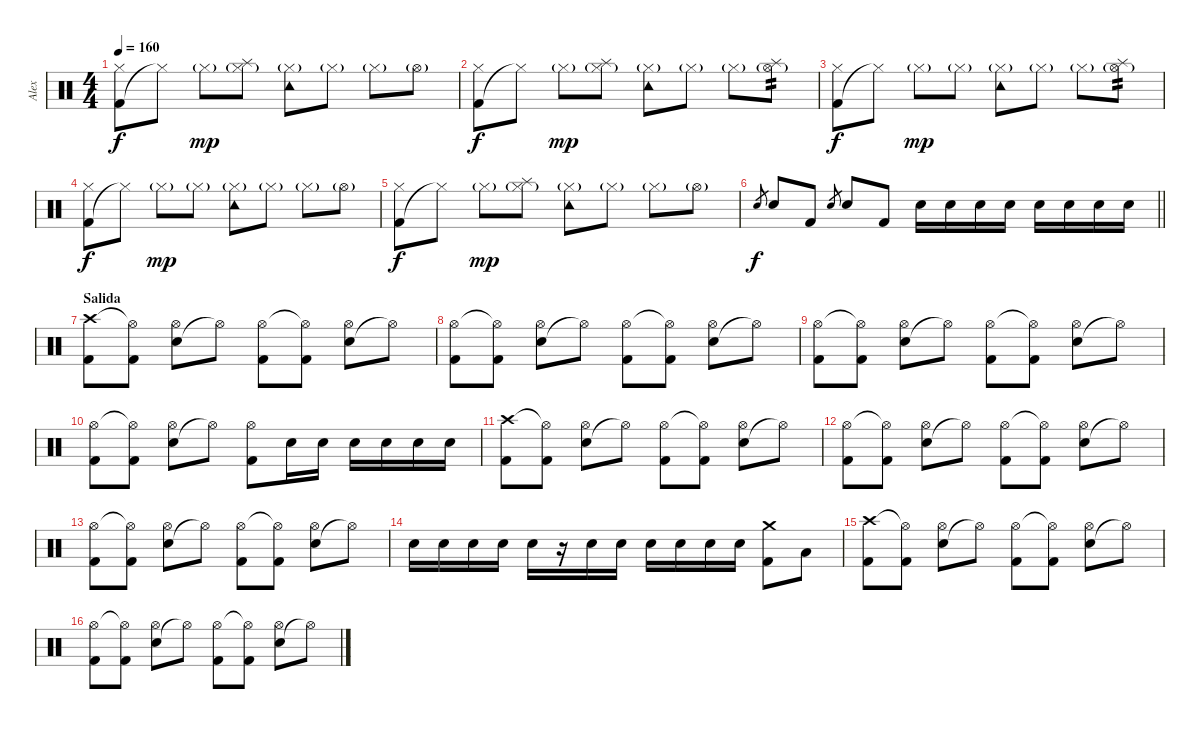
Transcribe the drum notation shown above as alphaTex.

\track ("Alex" "Alex") {instrument percussion}
\staff {score}
\articulation defaults
\ts (4 4)
\tempo 160
\clef neutral
\ks c
("Kick (hit) 2" "Hi-Hat (closed)").8{dy f} "Hi-Hat (closed)"{t}.8 "Hi-Hat (closed)"{g}.8{dy mp} ("Hi-Hat (closed)"{g} "Splash (hit)").8 ("Tambourine (hit)" "Hi-Hat (closed)"{g}).8 "Hi-Hat (closed)"{g}.8 "Hi-Hat (closed)"{g}.8 "Hi-Hat (open)"{g}.8 |
("Kick (hit) 2" "Hi-Hat (closed)").8{dy f} "Hi-Hat (closed)"{t}.8 "Hi-Hat (closed)"{g}.8{dy mp} ("Hi-Hat (closed)"{g} "Splash (hit)").8 ("Tambourine (hit)" "Hi-Hat (closed)"{g}).8 "Hi-Hat (closed)"{g}.8 "Hi-Hat (closed)"{g}.8 ("Hi-Hat (open)"{g} "Splash (hit)").8{tp 2} |
("Kick (hit) 2" "Hi-Hat (closed)").8{dy f} "Hi-Hat (closed)"{t}.8 "Hi-Hat (closed)"{g}.8{dy mp} "Hi-Hat (closed)"{g}.8 ("Tambourine (hit)" "Hi-Hat (closed)"{g}).8 "Hi-Hat (closed)"{g}.8 "Hi-Hat (closed)"{g}.8 ("Hi-Hat (open)"{g} "Splash (hit)").8{tp 2} |
("Kick (hit) 2" "Hi-Hat (closed)").8{dy f} "Hi-Hat (closed)"{t}.8 "Hi-Hat (closed)"{g}.8{dy mp} "Hi-Hat (closed)"{g}.8 ("Tambourine (hit)" "Hi-Hat (closed)"{g}).8 "Hi-Hat (closed)"{g}.8 "Hi-Hat (closed)"{g}.8 "Hi-Hat (open)"{g}.8 |
("Kick (hit) 2" "Hi-Hat (closed)").8{dy f} "Hi-Hat (closed)"{t}.8 "Hi-Hat (closed)"{g}.8{dy mp} ("Hi-Hat (closed)"{g} "Splash (hit)").8 ("Tambourine (hit)" "Hi-Hat (closed)"{g}).8 "Hi-Hat (closed)"{g}.8 "Hi-Hat (closed)"{g}.8 "Hi-Hat (open)"{g}.8 |
\barLineRight lightlight "Snare (hit) 2".8{gr dy f} "Snare (hit) 2".8{volume 16} "Kick (hit) 2".8 "Snare (hit) 2".8{gr} "Snare (hit) 2".8 "Kick (hit) 2".8 "Snare (hit) 2".16 "Snare (hit) 2".16 "Snare (hit) 2".16 "Snare (hit) 2".16 "Snare (hit) 2".16 "Snare (hit) 2".16 "Snare (hit) 2".16 "Snare (hit) 2".16
|
\section ("" "Salida")
("Kick (hit) 2" "Crash high (hit)").8 ("Kick (hit) 2" "Hi-Hat (open)"{t}).8 ("Snare (hit) 2" "Hi-Hat (open)").8 "Hi-Hat (open)"{t}.8 ("Kick (hit) 2" "Hi-Hat (open)").8 ("Kick (hit) 2" "Hi-Hat (open)"{t}).8 ("Snare (hit) 2" "Hi-Hat (open)").8 "Hi-Hat (open)"{t}.8 |
("Kick (hit) 2" "Hi-Hat (open)").8 ("Kick (hit) 2" "Hi-Hat (open)"{t}).8 ("Snare (hit) 2" "Hi-Hat (open)").8 "Hi-Hat (open)"{t}.8 ("Kick (hit) 2" "Hi-Hat (open)").8 ("Kick (hit) 2" "Hi-Hat (open)"{t}).8 ("Snare (hit) 2" "Hi-Hat (open)").8 "Hi-Hat (open)"{t}.8 |
("Kick (hit) 2" "Hi-Hat (open)").8 ("Kick (hit) 2" "Hi-Hat (open)"{t}).8 ("Snare (hit) 2" "Hi-Hat (open)").8 "Hi-Hat (open)"{t}.8 ("Kick (hit) 2" "Hi-Hat (open)").8 ("Kick (hit) 2" "Hi-Hat (open)"{t}).8 ("Snare (hit) 2" "Hi-Hat (open)").8 "Hi-Hat (open)"{t}.8 |
("Kick (hit) 2" "Hi-Hat (open)").8 ("Kick (hit) 2" "Hi-Hat (open)"{t}).8 ("Snare (hit) 2" "Hi-Hat (open)").8 "Hi-Hat (open)"{t}.8 ("Kick (hit) 2" "Hi-Hat (open)").8 "Snare (hit) 2".16 "Snare (hit) 2".16 "Snare (hit) 2".16 "Snare (hit) 2".16 "Snare (hit) 2".16 "Snare (hit) 2".16 |
("Kick (hit) 2" "Crash high (hit)").8 ("Kick (hit) 2" "Hi-Hat (open)"{t}).8 ("Snare (hit) 2" "Hi-Hat (open)").8 "Hi-Hat (open)"{t}.8 ("Kick (hit) 2" "Hi-Hat (open)").8 ("Kick (hit) 2" "Hi-Hat (open)"{t}).8 ("Snare (hit) 2" "Hi-Hat (open)").8 "Hi-Hat (open)"{t}.8 |
("Kick (hit) 2" "Hi-Hat (open)").8 ("Kick (hit) 2" "Hi-Hat (open)"{t}).8 ("Snare (hit) 2" "Hi-Hat (open)").8 "Hi-Hat (open)"{t}.8 ("Kick (hit) 2" "Hi-Hat (open)").8 ("Kick (hit) 2" "Hi-Hat (open)"{t}).8 ("Snare (hit) 2" "Hi-Hat (open)").8 "Hi-Hat (open)"{t}.8 |
("Kick (hit) 2" "Hi-Hat (open)").8 ("Kick (hit) 2" "Hi-Hat (open)"{t}).8 ("Snare (hit) 2" "Hi-Hat (open)").8 "Hi-Hat (open)"{t}.8 ("Kick (hit) 2" "Hi-Hat (open)").8 ("Kick (hit) 2" "Hi-Hat (open)"{t}).8 ("Snare (hit) 2" "Hi-Hat (open)").8 "Hi-Hat (open)"{t}.8 |
"Snare (hit) 2".16 "Snare (hit) 2".16 "Snare (hit) 2".16 "Snare (hit) 2".16 "Snare (hit) 2".16 r.16 "Snare (hit) 2".16 "Snare (hit) 2".16 "Snare (hit) 2".16 "Snare (hit) 2".16 "Snare (hit) 2".16 "Snare (hit) 2".16 ("Crash medium (hit)" "Kick (hit) 2").8 "Low Tom (hit)".8 |
("Kick (hit) 2" "Crash high (hit)").8 ("Kick (hit) 2" "Hi-Hat (open)"{t}).8 ("Snare (hit) 2" "Hi-Hat (open)").8 "Hi-Hat (open)"{t}.8 ("Kick (hit) 2" "Hi-Hat (open)").8 ("Kick (hit) 2" "Hi-Hat (open)"{t}).8 ("Snare (hit) 2" "Hi-Hat (open)").8 "Hi-Hat (open)"{t}.8 |
("Kick (hit) 2" "Hi-Hat (open)").8 ("Kick (hit) 2" "Hi-Hat (open)"{t}).8 ("Snare (hit) 2" "Hi-Hat (open)").8 "Hi-Hat (open)"{t}.8 ("Kick (hit) 2" "Hi-Hat (open)").8 ("Kick (hit) 2" "Hi-Hat (open)"{t}).8 ("Snare (hit) 2" "Hi-Hat (open)").8 "Hi-Hat (open)"{t}.8
